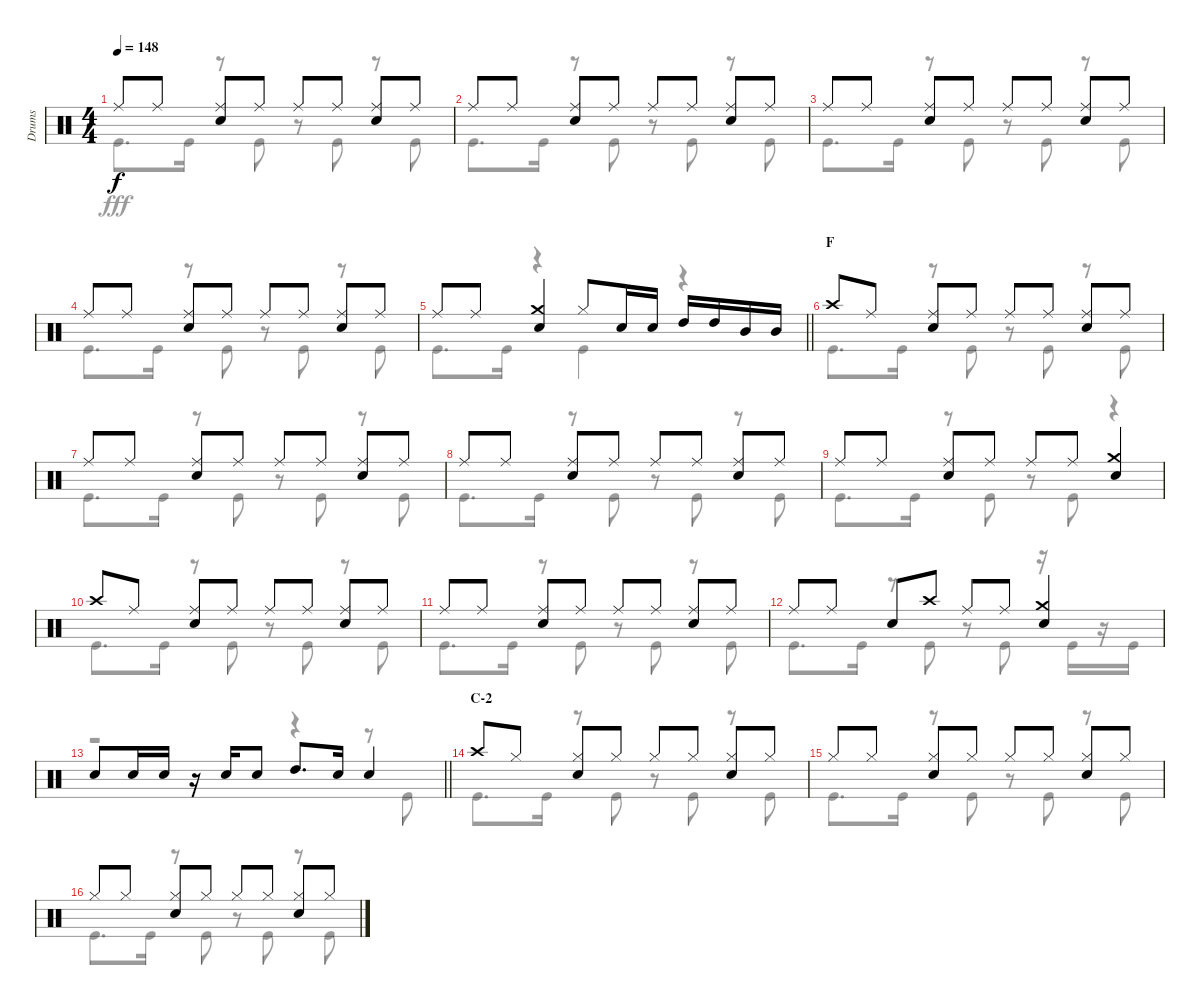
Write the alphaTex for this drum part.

\track ("Drums" "Drums") {instrument percussion}
\staff {score}
\articulation defaults
\voice
\ts (4 4)
\tempo 148
\clef neutral
\ks c "Ride (middle)".8{dy f} "Ride (middle)".8
("Ride (middle)" "Snare (hit) 2").8 "Ride (middle)".8 "Ride (middle)".8 "Ride (middle)".8 ("Ride (middle)" "Snare (hit) 2").8 "Ride (middle)".8 |
"Ride (middle)".8 "Ride (middle)".8 ("Ride (middle)" "Snare (hit) 2").8 "Ride (middle)".8 "Ride (middle)".8 "Ride (middle)".8 ("Ride (middle)" "Snare (hit) 2").8 "Ride (middle)".8 |
"Ride (middle)".8 "Ride (middle)".8 ("Ride (middle)" "Snare (hit) 2").8 "Ride (middle)".8 "Ride (middle)".8 "Ride (middle)".8 ("Ride (middle)" "Snare (hit) 2").8 "Ride (middle)".8 |
"Ride (middle)".8 "Ride (middle)".8 ("Ride (middle)" "Snare (hit) 2").8 "Ride (middle)".8 "Ride (middle)".8 "Ride (middle)".8 ("Ride (middle)" "Snare (hit) 2").8 "Ride (middle)".8 |
\barLineRight lightlight "Ride (middle)".8 "Ride (middle)".8
("Crash medium (hit)" "Snare (hit) 2").4 "Hi-Hat (closed)".8 "Snare (hit) 2".16 "Snare (hit) 2".16 "High Tom (hit)".16 "High Tom (hit)".16 "Mid Tom (hit)".16 "Mid Tom (hit)".16 |
\section ("" "F")
"Crash high (hit)".8 "Ride (middle)".8 ("Ride (middle)" "Snare (hit) 2").8 "Ride (middle)".8 "Ride (middle)".8 "Ride (middle)".8 ("Ride (middle)" "Snare (hit) 2").8 "Ride (middle)".8 |
"Ride (middle)".8 "Ride (middle)".8 ("Ride (middle)" "Snare (hit) 2").8 "Ride (middle)".8 "Ride (middle)".8 "Ride (middle)".8 ("Ride (middle)" "Snare (hit) 2").8 "Ride (middle)".8 |
"Ride (middle)".8 "Ride (middle)".8 ("Ride (middle)" "Snare (hit) 2").8 "Ride (middle)".8 "Ride (middle)".8 "Ride (middle)".8 ("Ride (middle)" "Snare (hit) 2").8 "Ride (middle)".8 |
"Ride (middle)".8 "Ride (middle)".8 ("Ride (middle)" "Snare (hit) 2").8 "Ride (middle)".8 "Ride (middle)".8 "Ride (middle)".8 ("Crash medium (hit)" "Snare (hit) 2").4 |
"Crash high (hit)".8 "Ride (middle)".8 ("Ride (middle)" "Snare (hit) 2").8 "Ride (middle)".8 "Ride (middle)".8 "Ride (middle)".8 ("Ride (middle)" "Snare (hit) 2").8 "Ride (middle)".8 |
"Ride (middle)".8 "Ride (middle)".8 ("Ride (middle)" "Snare (hit) 2").8 "Ride (middle)".8 "Ride (middle)".8 "Ride (middle)".8 ("Ride (middle)" "Snare (hit) 2").8 "Ride (middle)".8 |
"Ride (middle)".8 "Ride (middle)".8 "Snare (hit) 2".8 "Crash high (hit)".8 "Ride (middle)".8 "Ride (middle)".8 ("Crash medium (hit)" "Snare (hit) 2").4 |
\barLineRight lightlight "Snare (hit) 2".8 "Snare (hit) 2".16 "Snare (hit) 2".16
r.16 "Snare (hit) 2".16 "Snare (hit) 2".8 "High Tom (hit)".8{d} "Snare (hit) 2".16 "Snare (hit) 2".4 |
\section ("" "C-2")
"Crash high (hit)".8 "Hi-Hat (closed)".8 ("Hi-Hat (closed)" "Snare (hit) 2").8 "Hi-Hat (closed)".8 "Hi-Hat (closed)".8 "Hi-Hat (closed)".8 ("Hi-Hat (closed)" "Snare (hit) 2").8 "Hi-Hat (closed)".8 |
"Hi-Hat (closed)".8 "Hi-Hat (closed)".8 ("Hi-Hat (closed)" "Snare (hit) 2").8 "Hi-Hat (closed)".8 "Hi-Hat (closed)".8 "Hi-Hat (closed)".8 ("Hi-Hat (closed)" "Snare (hit) 2").8 "Hi-Hat (closed)".8 |
"Hi-Hat (closed)".8 "Hi-Hat (closed)".8 ("Hi-Hat (closed)" "Snare (hit) 2").8 "Hi-Hat (closed)".8 "Hi-Hat (closed)".8 "Hi-Hat (closed)".8 ("Hi-Hat (closed)" "Snare (hit) 2").8 "Hi-Hat (closed)".8
\voice
\clef neutral
\ottava regular
\simile none
\ks c "Kick (hit)".8{d dy fff} "Kick (hit)".16
r.8 "Kick (hit)".8 r.8 "Kick (hit)".8 r.8 "Kick (hit)".8 |
"Kick (hit)".8{d} "Kick (hit)".16 r.8 "Kick (hit)".8 r.8 "Kick (hit)".8 r.8 "Kick (hit)".8 |
"Kick (hit)".8{d} "Kick (hit)".16 r.8 "Kick (hit)".8 r.8 "Kick (hit)".8 r.8 "Kick (hit)".8 |
"Kick (hit)".8{d} "Kick (hit)".16 r.8 "Kick (hit)".8 r.8 "Kick (hit)".8 r.8 "Kick (hit)".8 |
\barLineRight lightlight "Kick (hit)".8{d} "Kick (hit)".16
r.4 "Kick (hit)".4 r.4 |
"Kick (hit)".8{d} "Kick (hit)".16 r.8 "Kick (hit)".8 r.8 "Kick (hit)".8 r.8 "Kick (hit)".8 |
"Kick (hit)".8{d} "Kick (hit)".16 r.8 "Kick (hit)".8 r.8 "Kick (hit)".8 r.8 "Kick (hit)".8 |
"Kick (hit)".8{d} "Kick (hit)".16 r.8 "Kick (hit)".8 r.8 "Kick (hit)".8 r.8 "Kick (hit)".8 |
"Kick (hit)".8{d} "Kick (hit)".16 r.8 "Kick (hit)".8 r.8 "Kick (hit)".8 r.4 |
"Kick (hit)".8{d} "Kick (hit)".16 r.8 "Kick (hit)".8 r.8 "Kick (hit)".8 r.8 "Kick (hit)".8 |
"Kick (hit)".8{d} "Kick (hit)".16 r.8 "Kick (hit)".8 r.8 "Kick (hit)".8 r.8 "Kick (hit)".8 |
"Kick (hit)".8{d} "Kick (hit)".16 r.8 "Kick (hit)".8 r.8 "Kick (hit)".8 r.16 "Kick (hit)".16 r.16 "Kick (hit)".16 |
\barLineRight lightlight
r.2 r.4 r.8 "Kick (hit)".8 |
"Kick (hit)".8{d} "Kick (hit)".16 r.8 "Kick (hit)".8 r.8 "Kick (hit)".8 r.8 "Kick (hit)".8 |
"Kick (hit)".8{d} "Kick (hit)".16 r.8 "Kick (hit)".8 r.8 "Kick (hit)".8 r.8 "Kick (hit)".8 |
"Kick (hit)".8{d} "Kick (hit)".16 r.8 "Kick (hit)".8 r.8 "Kick (hit)".8 r.8 "Kick (hit)".8
